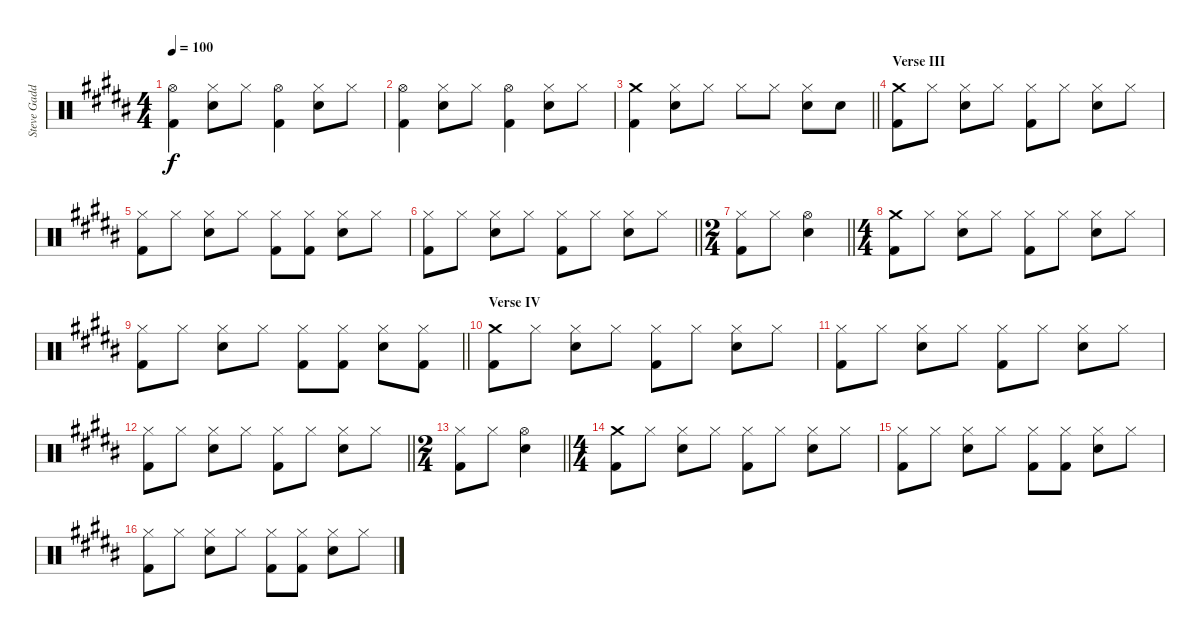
\track ("Steve Gadd Drums" "Steve Gadd") {instrument percussion}
\staff {score}
\articulation defaults
\ts (4 4)
\tempo 100
\clef neutral
\ks b
("Hi-Hat (open)" "Kick (hit) 2").4{dy f} ("Hi-Hat (closed)" "Snare (hit) 2").8 "Hi-Hat (closed)".8 ("Hi-Hat (open)" "Kick (hit) 2").4 ("Hi-Hat (closed)" "Snare (hit) 2").8 "Hi-Hat (closed)".8 |
("Hi-Hat (open)" "Kick (hit) 2").4 ("Hi-Hat (closed)" "Snare (hit) 2").8 "Hi-Hat (closed)".8 ("Hi-Hat (open)" "Kick (hit) 2").4 ("Hi-Hat (closed)" "Snare (hit) 2").8 "Hi-Hat (closed)".8 |
\barLineRight lightlight
("Crash medium (hit)" "Kick (hit) 2").4 ("Hi-Hat (closed)" "Snare (hit) 2").8 "Hi-Hat (closed)".8 "Hi-Hat (closed)".8 "Hi-Hat (closed)".8 ("Hi-Hat (closed)" "Snare (hit) 2").8 "Snare (hit) 2".8 |
\section ("" "Verse III")
("Crash medium (hit)" "Kick (hit) 2").8 "Hi-Hat (closed)".8 ("Hi-Hat (closed)" "Snare (hit) 2").8 "Hi-Hat (closed)".8 ("Hi-Hat (closed)" "Kick (hit) 2").8 "Hi-Hat (closed)".8 ("Hi-Hat (closed)" "Snare (hit) 2").8 "Hi-Hat (closed)".8 |
("Hi-Hat (closed)" "Kick (hit) 2").8 "Hi-Hat (closed)".8 ("Hi-Hat (closed)" "Snare (hit) 2").8 "Hi-Hat (closed)".8 ("Hi-Hat (closed)" "Kick (hit) 2").8 ("Hi-Hat (closed)" "Kick (hit) 2").8 ("Hi-Hat (closed)" "Snare (hit) 2").8 "Hi-Hat (closed)".8 |
\barLineRight lightlight
("Hi-Hat (closed)" "Kick (hit) 2").8 "Hi-Hat (closed)".8 ("Hi-Hat (closed)" "Snare (hit) 2").8 "Hi-Hat (closed)".8 ("Hi-Hat (closed)" "Kick (hit) 2").8 "Hi-Hat (closed)".8 ("Hi-Hat (closed)" "Snare (hit) 2").8 "Hi-Hat (closed)".8 |
\ts (2 4)
\barLineRight lightlight
("Hi-Hat (closed)" "Kick (hit) 2").8 "Hi-Hat (closed)".8 ("Hi-Hat (open)" "Snare (hit) 2").4 |
\ts (4 4)
("Crash medium (hit)" "Kick (hit) 2").8 "Hi-Hat (closed)".8 ("Hi-Hat (closed)" "Snare (hit) 2").8 "Hi-Hat (closed)".8 ("Hi-Hat (closed)" "Kick (hit) 2").8 "Hi-Hat (closed)".8 ("Hi-Hat (closed)" "Snare (hit) 2").8 "Hi-Hat (closed)".8 |
\barLineRight lightlight
("Hi-Hat (closed)" "Kick (hit) 2").8 "Hi-Hat (closed)".8 ("Hi-Hat (closed)" "Snare (hit) 2").8 "Hi-Hat (closed)".8 ("Hi-Hat (closed)" "Kick (hit) 2").8 ("Hi-Hat (closed)" "Kick (hit) 2").8 ("Hi-Hat (closed)" "Snare (hit) 2").8 ("Hi-Hat (closed)" "Kick (hit) 2").8 |
\section ("" "Verse IV")
("Crash medium (hit)" "Kick (hit) 2").8 "Hi-Hat (closed)".8 ("Hi-Hat (closed)" "Snare (hit) 2").8 "Hi-Hat (closed)".8 ("Hi-Hat (closed)" "Kick (hit) 2").8 "Hi-Hat (closed)".8 ("Hi-Hat (closed)" "Snare (hit) 2").8 "Hi-Hat (closed)".8 |
("Hi-Hat (closed)" "Kick (hit) 2").8 "Hi-Hat (closed)".8 ("Hi-Hat (closed)" "Snare (hit) 2").8 "Hi-Hat (closed)".8 ("Hi-Hat (closed)" "Kick (hit) 2").8 "Hi-Hat (closed)".8 ("Hi-Hat (closed)" "Snare (hit) 2").8 "Hi-Hat (closed)".8 |
\barLineRight lightlight
("Hi-Hat (closed)" "Kick (hit) 2").8 "Hi-Hat (closed)".8 ("Hi-Hat (closed)" "Snare (hit) 2").8 "Hi-Hat (closed)".8 ("Hi-Hat (closed)" "Kick (hit) 2").8 "Hi-Hat (closed)".8 ("Hi-Hat (closed)" "Snare (hit) 2").8 "Hi-Hat (closed)".8 |
\ts (2 4)
\barLineRight lightlight
("Hi-Hat (closed)" "Kick (hit) 2").8 "Hi-Hat (closed)".8 ("Hi-Hat (open)" "Snare (hit) 2").4 |
\ts (4 4)
("Crash medium (hit)" "Kick (hit) 2").8 "Hi-Hat (closed)".8 ("Hi-Hat (closed)" "Snare (hit) 2").8 "Hi-Hat (closed)".8 ("Hi-Hat (closed)" "Kick (hit) 2").8 "Hi-Hat (closed)".8 ("Hi-Hat (closed)" "Snare (hit) 2").8 "Hi-Hat (closed)".8 |
("Hi-Hat (closed)" "Kick (hit) 2").8 "Hi-Hat (closed)".8 ("Hi-Hat (closed)" "Snare (hit) 2").8 "Hi-Hat (closed)".8 ("Hi-Hat (closed)" "Kick (hit) 2").8 ("Hi-Hat (closed)" "Kick (hit) 2").8 ("Hi-Hat (closed)" "Snare (hit) 2").8 "Hi-Hat (closed)".8 |
("Hi-Hat (closed)" "Kick (hit) 2").8 "Hi-Hat (closed)".8 ("Hi-Hat (closed)" "Snare (hit) 2").8 "Hi-Hat (closed)".8 ("Hi-Hat (closed)" "Kick (hit) 2").8 ("Hi-Hat (closed)" "Kick (hit) 2").8 ("Hi-Hat (closed)" "Snare (hit) 2").8 "Hi-Hat (closed)".8
